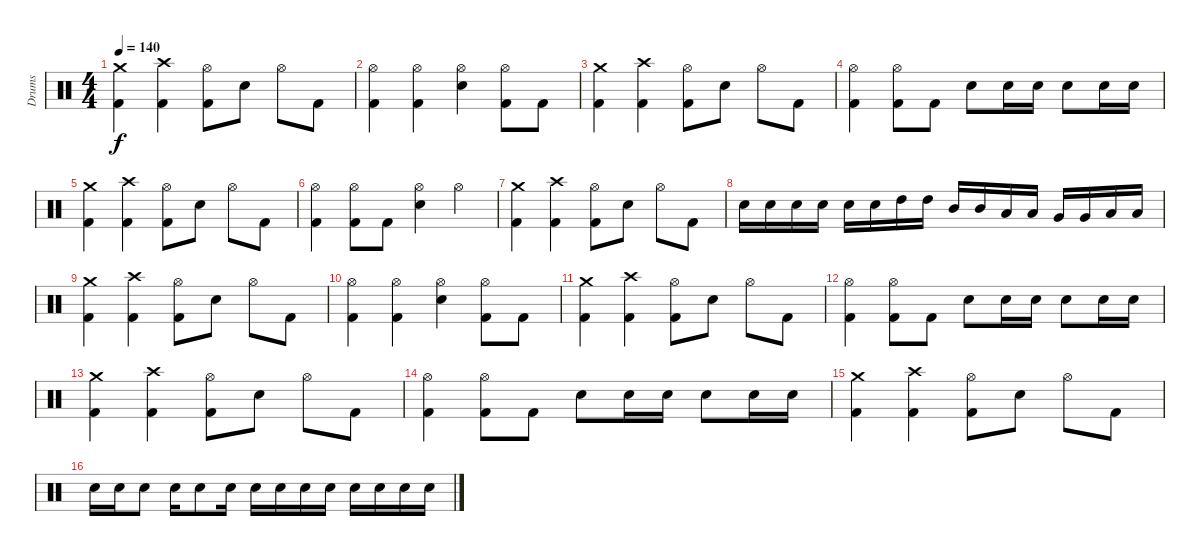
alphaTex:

\track ("Drums" "Drums") {instrument percussion}
\staff {score}
\articulation defaults
\ts (4 4)
\tempo 140
\clef neutral
\ks c
("Crash medium (hit)" "Kick (hit) 2").4{dy f} ("Crash high (hit)" "Kick (hit) 2").4 ("Hi-Hat (open)" "Kick (hit) 2").8 "Electric Snare (hit)".8 "Hi-Hat (open)".8 "Kick (hit) 2".8 |
("Hi-Hat (open)" "Kick (hit) 2").4 ("Hi-Hat (open)" "Kick (hit) 2").4 ("Hi-Hat (open)" "Electric Snare (hit)").4 ("Hi-Hat (open)" "Kick (hit) 2").8 "Kick (hit) 2".8 |
("Crash medium (hit)" "Kick (hit) 2").4 ("Crash high (hit)" "Kick (hit) 2").4 ("Hi-Hat (open)" "Kick (hit) 2").8 "Electric Snare (hit)".8 "Hi-Hat (open)".8 "Kick (hit) 2".8 |
("Hi-Hat (open)" "Kick (hit) 2").4 ("Hi-Hat (open)" "Kick (hit) 2").8 "Kick (hit) 2".8 "Electric Snare (hit)".8 "Electric Snare (hit)".16 "Electric Snare (hit)".16 "Electric Snare (hit)".8 "Electric Snare (hit)".16 "Electric Snare (hit)".16 |
("Crash medium (hit)" "Kick (hit) 2").4 ("Crash high (hit)" "Kick (hit) 2").4 ("Hi-Hat (open)" "Kick (hit) 2").8 "Electric Snare (hit)".8 "Hi-Hat (open)".8 "Kick (hit) 2".8 |
("Hi-Hat (open)" "Kick (hit) 2").4 ("Hi-Hat (open)" "Kick (hit) 2").8 "Kick (hit) 2".8 ("Hi-Hat (open)" "Electric Snare (hit)").4 "Hi-Hat (open)".4 |
("Crash medium (hit)" "Kick (hit) 2").4 ("Crash high (hit)" "Kick (hit) 2").4 ("Hi-Hat (open)" "Kick (hit) 2").8 "Electric Snare (hit)".8 "Hi-Hat (open)".8 "Kick (hit) 2".8 |
"Electric Snare (hit)".16 "Electric Snare (hit)".16 "Electric Snare (hit)".16 "Electric Snare (hit)".16 "Electric Snare (hit)".16 "Electric Snare (hit)".16 "High Tom (hit)".16 "High Tom (hit)".16 "Mid Tom (hit)".16 "Mid Tom (hit)".16 "Low Tom (hit)".16 "Low Tom (hit)".16 "Very Low Tom (hit)".16 "Very Low Tom (hit)".16 "Low Floor Tom (hit)".16 "Low Floor Tom (hit)".16 |
("Crash medium (hit)" "Kick (hit) 2").4 ("Crash high (hit)" "Kick (hit) 2").4 ("Hi-Hat (open)" "Kick (hit) 2").8 "Electric Snare (hit)".8 "Hi-Hat (open)".8 "Kick (hit) 2".8 |
("Hi-Hat (open)" "Kick (hit) 2").4 ("Hi-Hat (open)" "Kick (hit) 2").4 ("Hi-Hat (open)" "Electric Snare (hit)").4 ("Hi-Hat (open)" "Kick (hit) 2").8 "Kick (hit) 2".8 |
("Crash medium (hit)" "Kick (hit) 2").4 ("Crash high (hit)" "Kick (hit) 2").4 ("Hi-Hat (open)" "Kick (hit) 2").8 "Electric Snare (hit)".8 "Hi-Hat (open)".8 "Kick (hit) 2".8 |
("Hi-Hat (open)" "Kick (hit) 2").4 ("Hi-Hat (open)" "Kick (hit) 2").8 "Kick (hit) 2".8 "Electric Snare (hit)".8 "Electric Snare (hit)".16 "Electric Snare (hit)".16 "Electric Snare (hit)".8 "Electric Snare (hit)".16 "Electric Snare (hit)".16 |
("Crash medium (hit)" "Kick (hit) 2").4 ("Crash high (hit)" "Kick (hit) 2").4 ("Hi-Hat (open)" "Kick (hit) 2").8 "Electric Snare (hit)".8 "Hi-Hat (open)".8 "Kick (hit) 2".8 |
("Hi-Hat (open)" "Kick (hit) 2").4 ("Hi-Hat (open)" "Kick (hit) 2").8 "Kick (hit) 2".8 "Electric Snare (hit)".8 "Electric Snare (hit)".16 "Electric Snare (hit)".16 "Electric Snare (hit)".8 "Electric Snare (hit)".16 "Electric Snare (hit)".16 |
("Crash medium (hit)" "Kick (hit) 2").4 ("Crash high (hit)" "Kick (hit) 2").4 ("Hi-Hat (open)" "Kick (hit) 2").8 "Electric Snare (hit)".8 "Hi-Hat (open)".8 "Kick (hit) 2".8 |
"Electric Snare (hit)".16 "Electric Snare (hit)".16 "Electric Snare (hit)".8 "Electric Snare (hit)".16 "Electric Snare (hit)".8 "Electric Snare (hit)".16 "Electric Snare (hit)".16 "Electric Snare (hit)".16 "Electric Snare (hit)".16 "Electric Snare (hit)".16 "Electric Snare (hit)".16 "Electric Snare (hit)".16 "Electric Snare (hit)".16 "Electric Snare (hit)".16
